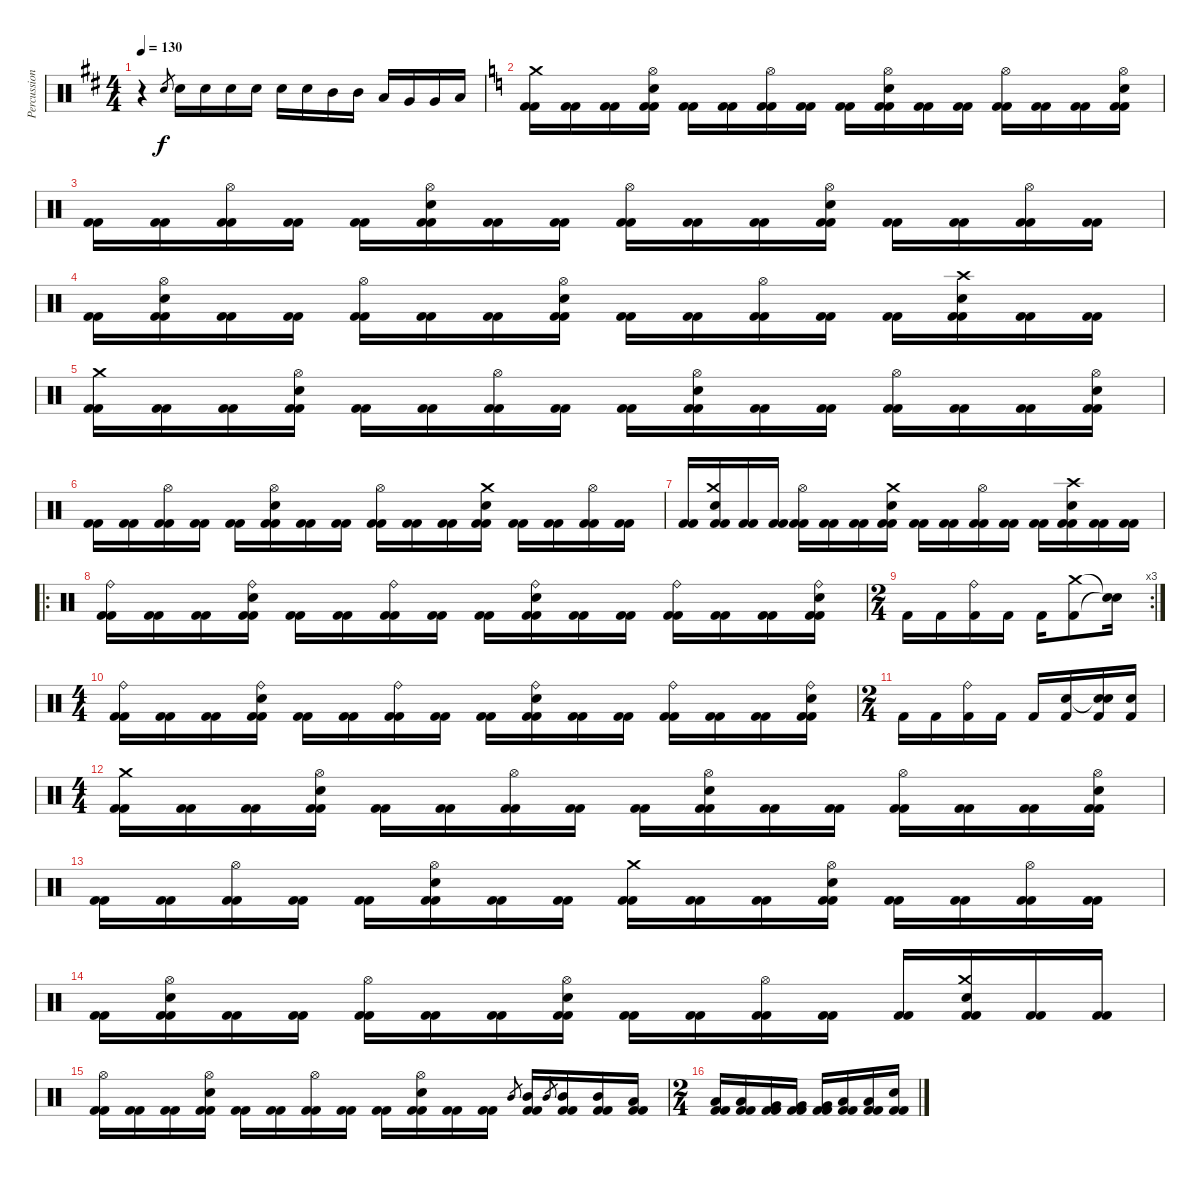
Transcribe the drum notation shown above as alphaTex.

\track ("Percussion" "Percussion") {instrument percussion}
\staff {score}
\articulation defaults
\ts (4 4)
\tempo 130
\clef neutral
\ks d
r.4{dy f} "Electric Snare (hit)".8{gr} "Electric Snare (hit)".16 "Electric Snare (hit)".16 "Electric Snare (hit)".16 "Electric Snare (hit)".16 "Electric Snare (hit)".16 "Electric Snare (hit)".16 "Mid Tom (hit)".16 "Mid Tom (hit)".16 "Low Tom (hit)".16 "Very Low Tom (hit)".16 "Very Low Tom (hit)".16 "Low Floor Tom (hit)".16 |
\ks c
("Crash medium (hit)" "Kick (hit) 2" "Kick (hit) 2").16 ("Kick (hit) 2" "Kick (hit) 2").16 ("Kick (hit) 2" "Kick (hit) 2").16 ("Hi-Hat (open)" "Electric Snare (hit)" "Kick (hit) 2" "Kick (hit) 2").16 ("Kick (hit) 2" "Kick (hit) 2").16 ("Kick (hit) 2" "Kick (hit) 2").16 ("Hi-Hat (open)" "Kick (hit) 2" "Kick (hit) 2").16 ("Kick (hit) 2" "Kick (hit) 2").16 ("Kick (hit) 2" "Kick (hit) 2").16 ("Hi-Hat (open)" "Electric Snare (hit)" "Kick (hit) 2" "Kick (hit) 2").16 ("Kick (hit) 2" "Kick (hit) 2").16 ("Kick (hit) 2" "Kick (hit) 2").16 ("Hi-Hat (open)" "Kick (hit) 2" "Kick (hit) 2").16 ("Kick (hit) 2" "Kick (hit) 2").16 ("Kick (hit) 2" "Kick (hit) 2").16 ("Hi-Hat (open)" "Electric Snare (hit)" "Kick (hit) 2" "Kick (hit) 2").16 |
("Kick (hit) 2" "Kick (hit) 2").16 ("Kick (hit) 2" "Kick (hit) 2").16 ("Hi-Hat (open)" "Kick (hit) 2" "Kick (hit) 2").16 ("Kick (hit) 2" "Kick (hit) 2").16 ("Kick (hit) 2" "Kick (hit) 2").16 ("Hi-Hat (open)" "Electric Snare (hit)" "Kick (hit) 2" "Kick (hit) 2").16 ("Kick (hit) 2" "Kick (hit) 2").16 ("Kick (hit) 2" "Kick (hit) 2").16 ("Hi-Hat (open)" "Kick (hit) 2" "Kick (hit) 2").16 ("Kick (hit) 2" "Kick (hit) 2").16 ("Kick (hit) 2" "Kick (hit) 2").16 ("Hi-Hat (open)" "Electric Snare (hit)" "Kick (hit) 2" "Kick (hit) 2").16 ("Kick (hit) 2" "Kick (hit) 2").16 ("Kick (hit) 2" "Kick (hit) 2").16 ("Hi-Hat (open)" "Kick (hit) 2" "Kick (hit) 2").16 ("Kick (hit) 2" "Kick (hit) 2").16 |
("Kick (hit) 2" "Kick (hit) 2").16 ("Hi-Hat (open)" "Electric Snare (hit)" "Kick (hit) 2" "Kick (hit) 2").16 ("Kick (hit) 2" "Kick (hit) 2").16 ("Kick (hit) 2" "Kick (hit) 2").16 ("Hi-Hat (open)" "Kick (hit) 2" "Kick (hit) 2").16 ("Kick (hit) 2" "Kick (hit) 2").16 ("Kick (hit) 2" "Kick (hit) 2").16 ("Hi-Hat (open)" "Electric Snare (hit)" "Kick (hit) 2" "Kick (hit) 2").16 ("Kick (hit) 2" "Kick (hit) 2").16 ("Kick (hit) 2" "Kick (hit) 2").16 ("Hi-Hat (open)" "Kick (hit) 2" "Kick (hit) 2").16 ("Kick (hit) 2" "Kick (hit) 2").16 ("Kick (hit) 2" "Kick (hit) 2").16 ("Crash high (hit)" "Electric Snare (hit)" "Kick (hit) 2" "Kick (hit) 2").16 ("Kick (hit) 2" "Kick (hit) 2").16 ("Kick (hit) 2" "Kick (hit) 2").16 |
("Crash medium (hit)" "Kick (hit) 2" "Kick (hit) 2").16 ("Kick (hit) 2" "Kick (hit) 2").16 ("Kick (hit) 2" "Kick (hit) 2").16 ("Hi-Hat (open)" "Electric Snare (hit)" "Kick (hit) 2" "Kick (hit) 2").16 ("Kick (hit) 2" "Kick (hit) 2").16 ("Kick (hit) 2" "Kick (hit) 2").16 ("Hi-Hat (open)" "Kick (hit) 2" "Kick (hit) 2").16 ("Kick (hit) 2" "Kick (hit) 2").16 ("Kick (hit) 2" "Kick (hit) 2").16 ("Hi-Hat (open)" "Electric Snare (hit)" "Kick (hit) 2" "Kick (hit) 2").16 ("Kick (hit) 2" "Kick (hit) 2").16 ("Kick (hit) 2" "Kick (hit) 2").16 ("Hi-Hat (open)" "Kick (hit) 2" "Kick (hit) 2").16 ("Kick (hit) 2" "Kick (hit) 2").16 ("Kick (hit) 2" "Kick (hit) 2").16 ("Hi-Hat (open)" "Electric Snare (hit)" "Kick (hit) 2" "Kick (hit) 2").16 |
("Kick (hit) 2" "Kick (hit) 2").16 ("Kick (hit) 2" "Kick (hit) 2").16 ("Hi-Hat (open)" "Kick (hit) 2" "Kick (hit) 2").16 ("Kick (hit) 2" "Kick (hit) 2").16 ("Kick (hit) 2" "Kick (hit) 2").16 ("Hi-Hat (open)" "Electric Snare (hit)" "Kick (hit) 2" "Kick (hit) 2").16 ("Kick (hit) 2" "Kick (hit) 2").16 ("Kick (hit) 2" "Kick (hit) 2").16 ("Hi-Hat (open)" "Kick (hit) 2" "Kick (hit) 2").16 ("Kick (hit) 2" "Kick (hit) 2").16 ("Kick (hit) 2" "Kick (hit) 2").16 ("Crash medium (hit)" "Electric Snare (hit)" "Kick (hit) 2" "Kick (hit) 2").16 ("Kick (hit) 2" "Kick (hit) 2").16 ("Kick (hit) 2" "Kick (hit) 2").16 ("Hi-Hat (open)" "Kick (hit) 2" "Kick (hit) 2").16 ("Kick (hit) 2" "Kick (hit) 2").16 |
("Kick (hit) 2" "Kick (hit) 2").16 ("Crash medium (hit)" "Electric Snare (hit)" "Kick (hit) 2" "Kick (hit) 2").16 ("Kick (hit) 2" "Kick (hit) 2").16 ("Kick (hit) 2" "Kick (hit) 2").16 ("Hi-Hat (open)" "Kick (hit) 2" "Kick (hit) 2").16 ("Kick (hit) 2" "Kick (hit) 2").16 ("Kick (hit) 2" "Kick (hit) 2").16 ("Crash medium (hit)" "Electric Snare (hit)" "Kick (hit) 2" "Kick (hit) 2").16 ("Kick (hit) 2" "Kick (hit) 2").16 ("Kick (hit) 2" "Kick (hit) 2").16 ("Hi-Hat (open)" "Kick (hit) 2" "Kick (hit) 2").16 ("Kick (hit) 2" "Kick (hit) 2").16 ("Kick (hit) 2" "Kick (hit) 2").16 ("Crash high (hit)" "Electric Snare (hit)" "Kick (hit) 2" "Kick (hit) 2").16 ("Kick (hit) 2" "Kick (hit) 2").16 ("Kick (hit) 2" "Kick (hit) 2").16 |
\ro
("Ride (bell)" "Kick (hit) 2" "Kick (hit) 2").16 ("Kick (hit) 2" "Kick (hit) 2").16 ("Kick (hit) 2" "Kick (hit) 2").16 ("Ride (bell)" "Electric Snare (hit)" "Kick (hit) 2" "Kick (hit) 2").16 ("Kick (hit) 2" "Kick (hit) 2").16 ("Kick (hit) 2" "Kick (hit) 2").16 ("Ride (bell)" "Kick (hit) 2" "Kick (hit) 2").16 ("Kick (hit) 2" "Kick (hit) 2").16 ("Kick (hit) 2" "Kick (hit) 2").16 ("Ride (bell)" "Electric Snare (hit)" "Kick (hit) 2" "Kick (hit) 2").16 ("Kick (hit) 2" "Kick (hit) 2").16 ("Kick (hit) 2" "Kick (hit) 2").16 ("Ride (bell)" "Kick (hit) 2" "Kick (hit) 2").16 ("Kick (hit) 2" "Kick (hit) 2").16 ("Kick (hit) 2" "Kick (hit) 2").16 ("Ride (bell)" "Electric Snare (hit)" "Kick (hit) 2" "Kick (hit) 2").16 |
\rc 3
\ts (2 4)
"Kick (hit) 2".16 "Kick (hit) 2".16 ("Ride (bell)" "Kick (hit) 2").16 "Kick (hit) 2".16 "Kick (hit) 2".16 ("Crash medium (hit)" "Kick (hit) 2").8 ("Snare (hit)"{t} "Snare (hit)"{t}).16 |
\ts (4 4)
("Ride (bell)" "Kick (hit) 2" "Kick (hit) 2").16 ("Kick (hit) 2" "Kick (hit) 2").16 ("Kick (hit) 2" "Kick (hit) 2").16 ("Ride (bell)" "Electric Snare (hit)" "Kick (hit) 2" "Kick (hit) 2").16 ("Kick (hit) 2" "Kick (hit) 2").16 ("Kick (hit) 2" "Kick (hit) 2").16 ("Ride (bell)" "Kick (hit) 2" "Kick (hit) 2").16 ("Kick (hit) 2" "Kick (hit) 2").16 ("Kick (hit) 2" "Kick (hit) 2").16 ("Ride (bell)" "Electric Snare (hit)" "Kick (hit) 2" "Kick (hit) 2").16 ("Kick (hit) 2" "Kick (hit) 2").16 ("Kick (hit) 2" "Kick (hit) 2").16 ("Ride (bell)" "Kick (hit) 2" "Kick (hit) 2").16 ("Kick (hit) 2" "Kick (hit) 2").16 ("Kick (hit) 2" "Kick (hit) 2").16 ("Ride (bell)" "Electric Snare (hit)" "Kick (hit) 2" "Kick (hit) 2").16 |
\ts (2 4)
"Kick (hit) 2".16 "Kick (hit) 2".16 ("Ride (bell)" "Kick (hit) 2").16 "Kick (hit) 2".16 "Kick (hit) 2".16 ("Electric Snare (hit)" "Kick (hit) 2").16 ("Snare (hit)"{t} "Electric Snare (hit)" "Kick (hit) 2").16 ("Electric Snare (hit)" "Kick (hit) 2").16 |
\ts (4 4)
("Crash medium (hit)" "Kick (hit) 2" "Kick (hit) 2").16 ("Kick (hit) 2" "Kick (hit) 2").16 ("Kick (hit) 2" "Kick (hit) 2").16 ("Hi-Hat (open)" "Electric Snare (hit)" "Kick (hit) 2" "Kick (hit) 2").16 ("Kick (hit) 2" "Kick (hit) 2").16 ("Kick (hit) 2" "Kick (hit) 2").16 ("Hi-Hat (open)" "Kick (hit) 2" "Kick (hit) 2").16 ("Kick (hit) 2" "Kick (hit) 2").16 ("Kick (hit) 2" "Kick (hit) 2").16 ("Hi-Hat (open)" "Electric Snare (hit)" "Kick (hit) 2" "Kick (hit) 2").16 ("Kick (hit) 2" "Kick (hit) 2").16 ("Kick (hit) 2" "Kick (hit) 2").16 ("Hi-Hat (open)" "Kick (hit) 2" "Kick (hit) 2").16 ("Kick (hit) 2" "Kick (hit) 2").16 ("Kick (hit) 2" "Kick (hit) 2").16 ("Hi-Hat (open)" "Electric Snare (hit)" "Kick (hit) 2" "Kick (hit) 2").16 |
("Kick (hit) 2" "Kick (hit) 2").16 ("Kick (hit) 2" "Kick (hit) 2").16 ("Hi-Hat (open)" "Kick (hit) 2" "Kick (hit) 2").16 ("Kick (hit) 2" "Kick (hit) 2").16 ("Kick (hit) 2" "Kick (hit) 2").16 ("Hi-Hat (open)" "Electric Snare (hit)" "Kick (hit) 2" "Kick (hit) 2").16 ("Kick (hit) 2" "Kick (hit) 2").16 ("Kick (hit) 2" "Kick (hit) 2").16 ("Crash medium (hit)" "Kick (hit) 2" "Kick (hit) 2").16 ("Kick (hit) 2" "Kick (hit) 2").16 ("Kick (hit) 2" "Kick (hit) 2").16 ("Hi-Hat (open)" "Electric Snare (hit)" "Kick (hit) 2" "Kick (hit) 2").16 ("Kick (hit) 2" "Kick (hit) 2").16 ("Kick (hit) 2" "Kick (hit) 2").16 ("Hi-Hat (open)" "Kick (hit) 2" "Kick (hit) 2").16 ("Kick (hit) 2" "Kick (hit) 2").16 |
("Kick (hit) 2" "Kick (hit) 2").16 ("Hi-Hat (open)" "Electric Snare (hit)" "Kick (hit) 2" "Kick (hit) 2").16 ("Kick (hit) 2" "Kick (hit) 2").16 ("Kick (hit) 2" "Kick (hit) 2").16 ("Hi-Hat (open)" "Kick (hit) 2" "Kick (hit) 2").16 ("Kick (hit) 2" "Kick (hit) 2").16 ("Kick (hit) 2" "Kick (hit) 2").16 ("Hi-Hat (open)" "Electric Snare (hit)" "Kick (hit) 2" "Kick (hit) 2").16 ("Kick (hit) 2" "Kick (hit) 2").16 ("Kick (hit) 2" "Kick (hit) 2").16 ("Hi-Hat (open)" "Kick (hit) 2" "Kick (hit) 2").16 ("Kick (hit) 2" "Kick (hit) 2").16 ("Kick (hit) 2" "Kick (hit) 2").16 ("Crash medium (hit)" "Electric Snare (hit)" "Kick (hit) 2" "Kick (hit) 2").16 ("Kick (hit) 2" "Kick (hit) 2").16 ("Kick (hit) 2" "Kick (hit) 2").16 |
("Hi-Hat (open)" "Kick (hit) 2" "Kick (hit) 2").16 ("Kick (hit) 2" "Kick (hit) 2").16 ("Kick (hit) 2" "Kick (hit) 2").16 ("Hi-Hat (open)" "Electric Snare (hit)" "Kick (hit) 2" "Kick (hit) 2").16 ("Kick (hit) 2" "Kick (hit) 2").16 ("Kick (hit) 2" "Kick (hit) 2").16 ("Hi-Hat (open)" "Kick (hit) 2" "Kick (hit) 2").16 ("Kick (hit) 2" "Kick (hit) 2").16 ("Kick (hit) 2" "Kick (hit) 2").16 ("Hi-Hat (open)" "Electric Snare (hit)" "Kick (hit) 2" "Kick (hit) 2").16 ("Kick (hit) 2" "Kick (hit) 2").16 ("Kick (hit) 2" "Kick (hit) 2").16 "Mid Tom (hit)".8{gr} ("Mid Tom (hit)" "Kick (hit) 2" "Kick (hit) 2").16 "Mid Tom (hit)".8{gr} ("Mid Tom (hit)" "Kick (hit) 2" "Kick (hit) 2").16 ("Mid Tom (hit)" "Kick (hit) 2" "Kick (hit) 2").16 ("Low Tom (hit)" "Kick (hit) 2" "Kick (hit) 2").16 |
\ts (2 4)
("Low Tom (hit)" "Kick (hit) 2" "Kick (hit) 2").16 ("Low Tom (hit)" "Kick (hit) 2" "Kick (hit) 2").16 ("Very Low Tom (hit)" "Kick (hit) 2" "Kick (hit) 2").16 ("Very Low Tom (hit)" "Kick (hit) 2" "Kick (hit) 2").16 ("Very Low Tom (hit)" "Kick (hit) 2" "Kick (hit) 2").16 ("Low Floor Tom (hit)" "Kick (hit) 2" "Kick (hit) 2").16 ("Low Floor Tom (hit)" "Kick (hit) 2" "Kick (hit) 2").16 ("Electric Snare (hit)" "Kick (hit) 2" "Kick (hit) 2").16
